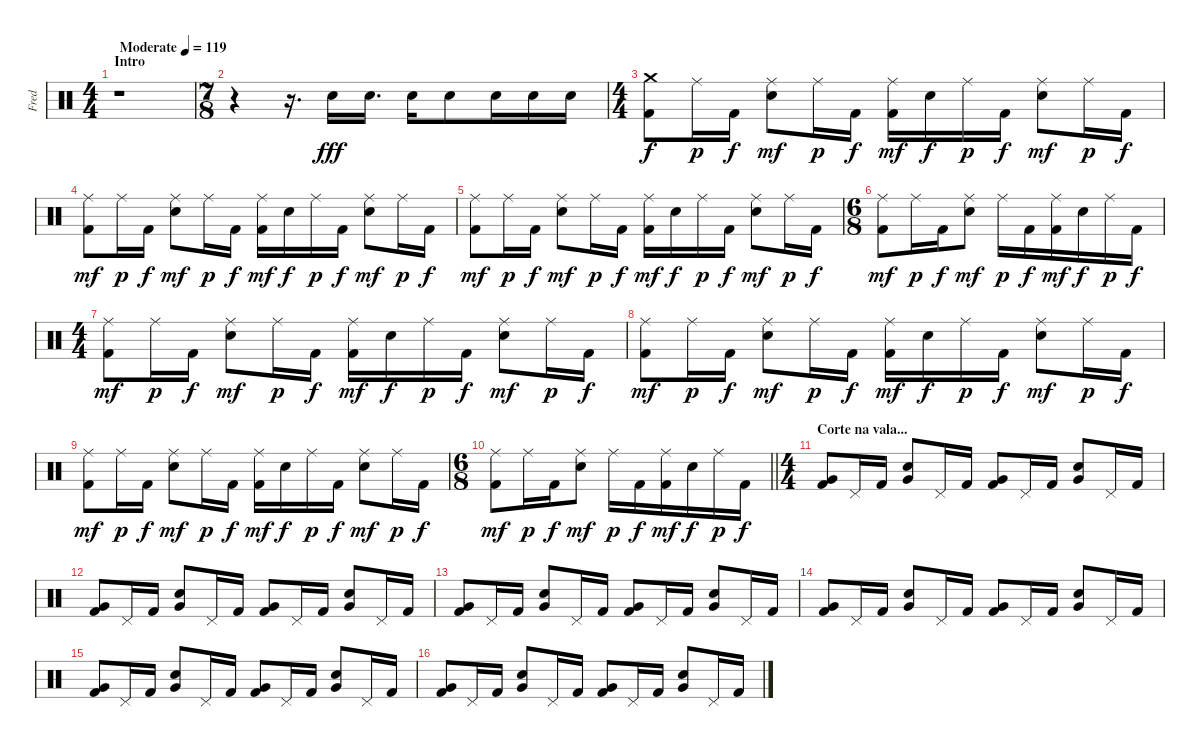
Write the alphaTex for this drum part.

\track ("Fred" "Fred") {instrument percussion}
\staff {score}
\articulation defaults
\ts (4 4)
\section ("" "Intro")
\tempo (119 "Moderate")
\clef neutral
\ks c
r.1{dy fff} |
\ts (7 8)
r.4 r.16{d} "Electric Snare (hit)".16 "Electric Snare (hit)".16{d} "Electric Snare (hit)".16 "Electric Snare (hit)".8 "Electric Snare (hit)".16 "Electric Snare (hit)".16 "Electric Snare (hit)".16 |
\ts (4 4)
("Crash medium (hit)" "Kick (hit) 2").8{dy f} "Ride (middle)".16{dy p} "Kick (hit) 2".16{dy f} ("Ride (middle)" "Electric Snare (hit)").8{dy mf} "Ride (middle)".16{dy p} "Kick (hit) 2".16{dy f} ("Ride (middle)" "Kick (hit) 2").16{dy mf} "Electric Snare (hit)".16{dy f} "Ride (middle)".16{dy p} "Kick (hit) 2".16{dy f} ("Ride (middle)" "Electric Snare (hit)").8{dy mf} "Ride (middle)".16{dy p} "Kick (hit) 2".16{dy f} |
("Ride (middle)" "Kick (hit) 2").8{dy mf} "Ride (middle)".16{dy p} "Kick (hit) 2".16{dy f} ("Ride (middle)" "Electric Snare (hit)").8{dy mf} "Ride (middle)".16{dy p} "Kick (hit) 2".16{dy f} ("Ride (middle)" "Kick (hit) 2").16{dy mf} "Electric Snare (hit)".16{dy f} "Ride (middle)".16{dy p} "Kick (hit) 2".16{dy f} ("Ride (middle)" "Electric Snare (hit)").8{dy mf} "Ride (middle)".16{dy p} "Kick (hit) 2".16{dy f} |
("Ride (middle)" "Kick (hit) 2").8{dy mf} "Ride (middle)".16{dy p} "Kick (hit) 2".16{dy f} ("Ride (middle)" "Electric Snare (hit)").8{dy mf} "Ride (middle)".16{dy p} "Kick (hit) 2".16{dy f} ("Ride (middle)" "Kick (hit) 2").16{dy mf} "Electric Snare (hit)".16{dy f} "Ride (middle)".16{dy p} "Kick (hit) 2".16{dy f} ("Ride (middle)" "Electric Snare (hit)").8{dy mf} "Ride (middle)".16{dy p} "Kick (hit) 2".16{dy f} |
\ts (6 8)
("Ride (middle)" "Kick (hit) 2").8{dy mf} "Ride (middle)".16{dy p} "Kick (hit) 2".16{dy f} ("Ride (middle)" "Electric Snare (hit)").8{dy mf} "Ride (middle)".16{dy p} "Kick (hit) 2".16{dy f} ("Ride (middle)" "Kick (hit) 2").16{dy mf} "Electric Snare (hit)".16{dy f} "Ride (middle)".16{dy p} "Kick (hit) 2".16{dy f} |
\ts (4 4)
("Ride (middle)" "Kick (hit) 2").8{dy mf} "Ride (middle)".16{dy p} "Kick (hit) 2".16{dy f} ("Ride (middle)" "Electric Snare (hit)").8{dy mf} "Ride (middle)".16{dy p} "Kick (hit) 2".16{dy f} ("Ride (middle)" "Kick (hit) 2").16{dy mf} "Electric Snare (hit)".16{dy f} "Ride (middle)".16{dy p} "Kick (hit) 2".16{dy f} ("Ride (middle)" "Electric Snare (hit)").8{dy mf} "Ride (middle)".16{dy p} "Kick (hit) 2".16{dy f} |
("Ride (middle)" "Kick (hit) 2").8{dy mf} "Ride (middle)".16{dy p} "Kick (hit) 2".16{dy f} ("Ride (middle)" "Electric Snare (hit)").8{dy mf} "Ride (middle)".16{dy p} "Kick (hit) 2".16{dy f} ("Ride (middle)" "Kick (hit) 2").16{dy mf} "Electric Snare (hit)".16{dy f} "Ride (middle)".16{dy p} "Kick (hit) 2".16{dy f} ("Ride (middle)" "Electric Snare (hit)").8{dy mf} "Ride (middle)".16{dy p} "Kick (hit) 2".16{dy f} |
("Ride (middle)" "Kick (hit) 2").8{dy mf} "Ride (middle)".16{dy p} "Kick (hit) 2".16{dy f} ("Ride (middle)" "Electric Snare (hit)").8{dy mf} "Ride (middle)".16{dy p} "Kick (hit) 2".16{dy f} ("Ride (middle)" "Kick (hit) 2").16{dy mf} "Electric Snare (hit)".16{dy f} "Ride (middle)".16{dy p} "Kick (hit) 2".16{dy f} ("Ride (middle)" "Electric Snare (hit)").8{dy mf} "Ride (middle)".16{dy p} "Kick (hit) 2".16{dy f} |
\ts (6 8)
\barLineRight lightlight
("Ride (middle)" "Kick (hit) 2").8{dy mf} "Ride (middle)".16{dy p} "Kick (hit) 2".16{dy f} ("Ride (middle)" "Electric Snare (hit)").8{dy mf} "Ride (middle)".16{dy p} "Kick (hit) 2".16{dy f} ("Ride (middle)" "Kick (hit) 2").16{dy mf} "Electric Snare (hit)".16{dy f} "Ride (middle)".16{dy p} "Kick (hit) 2".16{dy f} |
\ts (4 4)
\section ("" "Corte na vala...")
("Very Low Tom (hit)" "Kick (hit) 2").8 "Pedal Hi-Hat (hit)".16 "Kick (hit) 2".16 ("Very Low Tom (hit)" "Electric Snare (hit)").8 "Pedal Hi-Hat (hit)".16 "Kick (hit) 2".16 ("Very Low Tom (hit)" "Kick (hit) 2").8 "Pedal Hi-Hat (hit)".16 "Kick (hit) 2".16 ("Very Low Tom (hit)" "Electric Snare (hit)").8 "Pedal Hi-Hat (hit)".16 "Kick (hit) 2".16 |
("Very Low Tom (hit)" "Kick (hit) 2").8 "Pedal Hi-Hat (hit)".16 "Kick (hit) 2".16 ("Very Low Tom (hit)" "Electric Snare (hit)").8 "Pedal Hi-Hat (hit)".16 "Kick (hit) 2".16 ("Very Low Tom (hit)" "Kick (hit) 2").8 "Pedal Hi-Hat (hit)".16 "Kick (hit) 2".16 ("Very Low Tom (hit)" "Electric Snare (hit)").8 "Pedal Hi-Hat (hit)".16 "Kick (hit) 2".16 |
("Very Low Tom (hit)" "Kick (hit) 2").8 "Pedal Hi-Hat (hit)".16 "Kick (hit) 2".16 ("Very Low Tom (hit)" "Electric Snare (hit)").8 "Pedal Hi-Hat (hit)".16 "Kick (hit) 2".16 ("Very Low Tom (hit)" "Kick (hit) 2").8 "Pedal Hi-Hat (hit)".16 "Kick (hit) 2".16 ("Very Low Tom (hit)" "Electric Snare (hit)").8 "Pedal Hi-Hat (hit)".16 "Kick (hit) 2".16 |
("Very Low Tom (hit)" "Kick (hit) 2").8 "Pedal Hi-Hat (hit)".16 "Kick (hit) 2".16 ("Very Low Tom (hit)" "Electric Snare (hit)").8 "Pedal Hi-Hat (hit)".16 "Kick (hit) 2".16 ("Very Low Tom (hit)" "Kick (hit) 2").8 "Pedal Hi-Hat (hit)".16 "Kick (hit) 2".16 ("Very Low Tom (hit)" "Electric Snare (hit)").8 "Pedal Hi-Hat (hit)".16 "Kick (hit) 2".16 |
("Very Low Tom (hit)" "Kick (hit) 2").8 "Pedal Hi-Hat (hit)".16 "Kick (hit) 2".16 ("Very Low Tom (hit)" "Electric Snare (hit)").8 "Pedal Hi-Hat (hit)".16 "Kick (hit) 2".16 ("Very Low Tom (hit)" "Kick (hit) 2").8 "Pedal Hi-Hat (hit)".16 "Kick (hit) 2".16 ("Very Low Tom (hit)" "Electric Snare (hit)").8 "Pedal Hi-Hat (hit)".16 "Kick (hit) 2".16 |
("Very Low Tom (hit)" "Kick (hit) 2").8 "Pedal Hi-Hat (hit)".16 "Kick (hit) 2".16 ("Very Low Tom (hit)" "Electric Snare (hit)").8 "Pedal Hi-Hat (hit)".16 "Kick (hit) 2".16 ("Very Low Tom (hit)" "Kick (hit) 2").8 "Pedal Hi-Hat (hit)".16 "Kick (hit) 2".16 ("Very Low Tom (hit)" "Electric Snare (hit)").8 "Pedal Hi-Hat (hit)".16 "Kick (hit) 2".16
